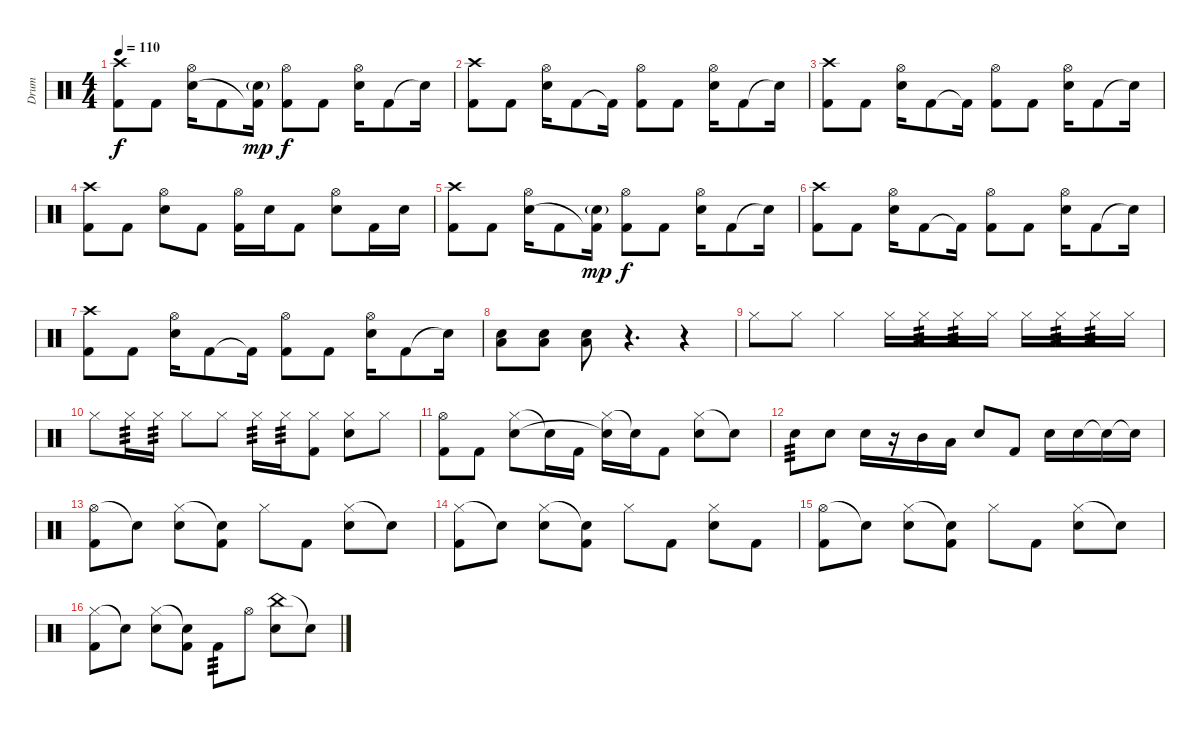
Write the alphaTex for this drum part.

\track ("Drum" "Drum") {instrument percussion}
\staff {score}
\articulation defaults
\ts (4 4)
\tempo 110
\clef neutral
\ks c
("Crash high (hit)" "Kick (hit) 2").8{dy f volume 12} "Kick (hit) 2".8 ("Hi-Hat (open)" "Electric Snare (hit)").16 "Kick (hit) 2".8 ("Electric Snare (hit)"{g} "Kick (hit) 2"{t}).16{dy mp} ("Hi-Hat (open)" "Kick (hit) 2").8{dy f} "Kick (hit) 2".8 ("Hi-Hat (open)" "Electric Snare (hit)").16 "Kick (hit) 2".8 "Snare (hit)"{t}.16 |
("Crash high (hit)" "Kick (hit) 2").8 "Kick (hit) 2".8 ("Hi-Hat (open)" "Electric Snare (hit)").16 "Kick (hit) 2".8 "Kick (hit) 2"{t}.16 ("Hi-Hat (open)" "Kick (hit) 2").8 "Kick (hit) 2".8 ("Hi-Hat (open)" "Electric Snare (hit)").16 "Kick (hit) 2".8 "Snare (hit)"{t}.16 |
("Crash high (hit)" "Kick (hit) 2").8 "Kick (hit) 2".8 ("Hi-Hat (open)" "Electric Snare (hit)").16 "Kick (hit) 2".8 "Kick (hit) 2"{t}.16 ("Hi-Hat (open)" "Kick (hit) 2").8 "Kick (hit) 2".8 ("Hi-Hat (open)" "Electric Snare (hit)").16 "Kick (hit) 2".8 "Snare (hit)"{t}.16 |
("Crash high (hit)" "Kick (hit) 2").8 "Kick (hit) 2".8 ("Hi-Hat (open)" "Electric Snare (hit)").8 "Kick (hit) 2".8 ("Hi-Hat (open)" "Kick (hit) 2").16 "Electric Snare (hit)".16 "Kick (hit) 2".8 ("Hi-Hat (open)" "Electric Snare (hit)").8 "Kick (hit) 2".16 "Electric Snare (hit)".16 |
("Crash high (hit)" "Kick (hit) 2").8{volume 12} "Kick (hit) 2".8 ("Hi-Hat (open)" "Electric Snare (hit)").16 "Kick (hit) 2".8 ("Electric Snare (hit)"{g} "Kick (hit) 2"{t}).16{dy mp} ("Hi-Hat (open)" "Kick (hit) 2").8{dy f} "Kick (hit) 2".8 ("Hi-Hat (open)" "Electric Snare (hit)").16 "Kick (hit) 2".8 "Snare (hit)"{t}.16 |
("Crash high (hit)" "Kick (hit) 2").8 "Kick (hit) 2".8 ("Hi-Hat (open)" "Electric Snare (hit)").16 "Kick (hit) 2".8 "Kick (hit) 2"{t}.16 ("Hi-Hat (open)" "Kick (hit) 2").8 "Kick (hit) 2".8 ("Hi-Hat (open)" "Electric Snare (hit)").16 "Kick (hit) 2".8 "Snare (hit)"{t}.16 |
("Crash high (hit)" "Kick (hit) 2").8 "Kick (hit) 2".8 ("Hi-Hat (open)" "Electric Snare (hit)").16 "Kick (hit) 2".8 "Kick (hit) 2"{t}.16 ("Hi-Hat (open)" "Kick (hit) 2").8 "Kick (hit) 2".8 ("Hi-Hat (open)" "Electric Snare (hit)").16 "Kick (hit) 2".8 "Snare (hit)"{t}.16 |
("Low Tom (hit)" "Electric Snare (hit)").8 ("Low Tom (hit)" "Electric Snare (hit)").8 ("Low Tom (hit)" "Electric Snare (hit)").8 r.4{d} r.4 |
"Hi-Hat (closed)".8 "Hi-Hat (closed)".8 "Hi-Hat (closed)".4 "Hi-Hat (closed)".16 "Hi-Hat (closed)".16{tp 3} "Hi-Hat (closed)".16{tp 3} "Hi-Hat (closed)".16 "Hi-Hat (closed)".16 "Hi-Hat (closed)".16{tp 3} "Hi-Hat (closed)".16{tp 3} "Hi-Hat (closed)".16 |
"Hi-Hat (closed)".8 "Hi-Hat (closed)".16{tp 3} "Hi-Hat (closed)".16{tp 3} "Hi-Hat (closed)".8 "Hi-Hat (closed)".8 "Hi-Hat (closed)".16{tp 3} "Hi-Hat (closed)".16{tp 3} ("Hi-Hat (closed)" "Kick (hit) 2").8 ("Hi-Hat (closed)" "Electric Snare (hit)").8 "Hi-Hat (closed)".8 |
("Hi-Hat (open)" "Kick (hit) 2").8 "Kick (hit) 2".8 ("Hi-Hat (closed)" "Electric Snare (hit)").8 "Snare (hit)"{t}.16 "Kick (hit) 2".16 ("Hi-Hat (closed)" "Snare (hit)"{t}).16 "Snare (hit)"{t}.16 "Kick (hit) 2".8 ("Hi-Hat (closed)" "Electric Snare (hit)").8 "Snare (hit)"{t}.8 |
"Electric Snare (hit)".8{tp 3} "Electric Snare (hit)".8 "Electric Snare (hit)".16 r.16 "Mid Tom (hit)".16 "Low Tom (hit)".16 "Electric Snare (hit)".8 "Kick (hit) 2".8 "Electric Snare (hit)".16 "Electric Snare (hit)".16 "Snare (hit)"{t}.16 "Snare (hit)"{t}.16 |
("Hi-Hat (open)" "Kick (hit) 2").8 "Snare (hit)"{t}.8 ("Hi-Hat (closed)" "Electric Snare (hit)").8 ("Snare (hit)"{t} "Kick (hit) 2").8 "Hi-Hat (closed)".8 "Kick (hit) 2".8 ("Hi-Hat (closed)" "Electric Snare (hit)").8 "Snare (hit)"{t}.8 |
("Hi-Hat (closed)" "Kick (hit) 2").8 "Snare (hit)"{t}.8 ("Hi-Hat (closed)" "Electric Snare (hit)").8 ("Snare (hit)"{t} "Kick (hit) 2").8 "Hi-Hat (closed)".8 "Kick (hit) 2".8 ("Hi-Hat (closed)" "Electric Snare (hit)").8 "Kick (hit) 2".8 |
("Hi-Hat (open)" "Kick (hit) 2").8 "Snare (hit)"{t}.8 ("Hi-Hat (closed)" "Electric Snare (hit)").8 ("Snare (hit)"{t} "Kick (hit) 2").8 "Hi-Hat (closed)".8 "Kick (hit) 2".8 ("Hi-Hat (closed)" "Electric Snare (hit)").8 "Snare (hit)"{t}.8 |
("Hi-Hat (closed)" "Kick (hit) 2").8 "Snare (hit)"{t}.8 ("Hi-Hat (closed)" "Electric Snare (hit)").8 ("Snare (hit)"{t} "Kick (hit) 2").8 "Kick (hit) 2".8{tp 3} "Hi-Hat (open)".8 ("China (hit)" "Electric Snare (hit)").8 "Snare (hit)"{t}.8
